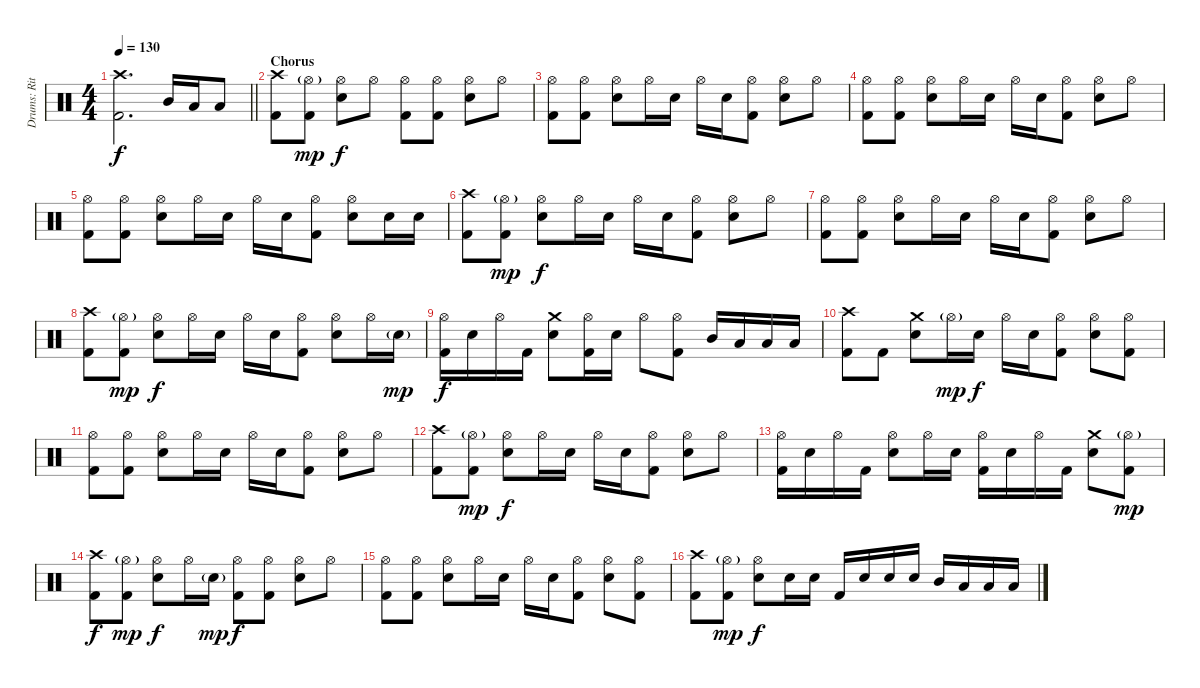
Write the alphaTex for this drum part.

\track ("Drums: Ritsu Tainaka" "Drums: Rit") {instrument percussion}
\staff {score}
\articulation defaults
\ts (4 4)
\tempo 130
\clef neutral
\barLineRight lightlight
\ks c
("Crash high (hit)" "Kick (hit) 2").2{d dy f} "Mid Tom (hit)".16 "Low Tom (hit)".16 "Low Floor Tom (hit)".8 |
\section ("" "Chorus")
("Crash high (hit)" "Kick (hit) 2").8 ("Hi-Hat (open)"{g} "Kick (hit) 2").8{dy mp} ("Hi-Hat (open)" "Electric Snare (hit)").8{dy f} "Hi-Hat (open)".8 ("Hi-Hat (open)" "Kick (hit) 2").8 ("Hi-Hat (open)" "Kick (hit) 2").8 ("Hi-Hat (open)" "Electric Snare (hit)").8 "Hi-Hat (open)".8 |
("Hi-Hat (open)" "Kick (hit) 2").8 ("Hi-Hat (open)" "Kick (hit) 2").8 ("Hi-Hat (open)" "Electric Snare (hit)").8 "Hi-Hat (open)".16 "Electric Snare (hit)".16 "Hi-Hat (open)".16 "Electric Snare (hit)".16 ("Hi-Hat (open)" "Kick (hit) 2").8 ("Hi-Hat (open)" "Electric Snare (hit)").8 "Hi-Hat (open)".8 |
("Hi-Hat (open)" "Kick (hit) 2").8 ("Hi-Hat (open)" "Kick (hit) 2").8 ("Hi-Hat (open)" "Electric Snare (hit)").8 "Hi-Hat (open)".16 "Electric Snare (hit)".16 "Hi-Hat (open)".16 "Electric Snare (hit)".16 ("Hi-Hat (open)" "Kick (hit) 2").8 ("Hi-Hat (open)" "Electric Snare (hit)").8 "Hi-Hat (open)".8 |
("Hi-Hat (open)" "Kick (hit) 2").8 ("Hi-Hat (open)" "Kick (hit) 2").8 ("Hi-Hat (open)" "Electric Snare (hit)").8 "Hi-Hat (open)".16 "Electric Snare (hit)".16 "Hi-Hat (open)".16 "Electric Snare (hit)".16 ("Hi-Hat (open)" "Kick (hit) 2").8 ("Hi-Hat (open)" "Electric Snare (hit)").8 "Electric Snare (hit)".16 "Electric Snare (hit)".16 |
("Crash high (hit)" "Kick (hit) 2").8 ("Hi-Hat (open)"{g} "Kick (hit) 2").8{dy mp} ("Hi-Hat (open)" "Electric Snare (hit)").8{dy f} "Hi-Hat (open)".16 "Electric Snare (hit)".16 "Hi-Hat (open)".16 "Electric Snare (hit)".16 ("Hi-Hat (open)" "Kick (hit) 2").8 ("Hi-Hat (open)" "Electric Snare (hit)").8 "Hi-Hat (open)".8 |
("Hi-Hat (open)" "Kick (hit) 2").8 ("Hi-Hat (open)" "Kick (hit) 2").8 ("Hi-Hat (open)" "Electric Snare (hit)").8 "Hi-Hat (open)".16 "Electric Snare (hit)".16 "Hi-Hat (open)".16 "Electric Snare (hit)".16 ("Hi-Hat (open)" "Kick (hit) 2").8 ("Hi-Hat (open)" "Electric Snare (hit)").8 "Hi-Hat (open)".8 |
("Crash high (hit)" "Kick (hit) 2").8 ("Hi-Hat (open)"{g} "Kick (hit) 2").8{dy mp} ("Hi-Hat (open)" "Electric Snare (hit)").8{dy f} "Hi-Hat (open)".16 "Electric Snare (hit)".16 "Hi-Hat (open)".16 "Electric Snare (hit)".16 ("Hi-Hat (open)" "Kick (hit) 2").8 ("Hi-Hat (open)" "Electric Snare (hit)").8 "Hi-Hat (open)".16 "Electric Snare (hit)"{g}.16{dy mp} |
("Hi-Hat (open)" "Kick (hit) 2").16{dy f} "Electric Snare (hit)".16 "Hi-Hat (open)".16 "Kick (hit) 2".16 ("Crash medium (hit)" "Electric Snare (hit)").8 ("Hi-Hat (open)" "Kick (hit) 2").16 "Electric Snare (hit)".16 "Hi-Hat (open)".8 ("Hi-Hat (open)" "Kick (hit) 2").8 "Mid Tom (hit)".16 "Low Tom (hit)".16 "Low Floor Tom (hit)".16 "Low Floor Tom (hit)".16 |
("Crash high (hit)" "Kick (hit) 2").8 "Kick (hit) 2".8 ("Crash medium (hit)" "Electric Snare (hit)").8 "Hi-Hat (open)"{g}.16{dy mp} "Electric Snare (hit)".16{dy f} "Hi-Hat (open)".16 "Electric Snare (hit)".16 ("Hi-Hat (open)" "Kick (hit) 2").8 ("Hi-Hat (open)" "Electric Snare (hit)").8 ("Hi-Hat (open)" "Kick (hit) 2").8 |
("Hi-Hat (open)" "Kick (hit) 2").8 ("Hi-Hat (open)" "Kick (hit) 2").8 ("Hi-Hat (open)" "Electric Snare (hit)").8 "Hi-Hat (open)".16 "Electric Snare (hit)".16 "Hi-Hat (open)".16 "Electric Snare (hit)".16 ("Hi-Hat (open)" "Kick (hit) 2").8 ("Hi-Hat (open)" "Electric Snare (hit)").8 "Hi-Hat (open)".8 |
("Crash high (hit)" "Kick (hit) 2").8 ("Hi-Hat (open)"{g} "Kick (hit) 2").8{dy mp} ("Hi-Hat (open)" "Electric Snare (hit)").8{dy f} "Hi-Hat (open)".16 "Electric Snare (hit)".16 "Hi-Hat (open)".16 "Electric Snare (hit)".16 ("Hi-Hat (open)" "Kick (hit) 2").8 ("Hi-Hat (open)" "Electric Snare (hit)").8 "Hi-Hat (open)".8 |
("Hi-Hat (open)" "Kick (hit) 2").16 "Electric Snare (hit)".16 "Hi-Hat (open)".16 "Kick (hit) 2".16 ("Hi-Hat (open)" "Electric Snare (hit)").8 "Hi-Hat (open)".16 "Electric Snare (hit)".16 ("Hi-Hat (open)" "Kick (hit) 2").16 "Electric Snare (hit)".16 "Hi-Hat (open)".16 "Kick (hit) 2".16 ("Crash medium (hit)" "Electric Snare (hit)").8 ("Hi-Hat (open)"{g} "Kick (hit) 2").8{dy mp} |
("Crash high (hit)" "Kick (hit) 2").8{dy f} ("Hi-Hat (open)"{g} "Kick (hit) 2").8{dy mp} ("Hi-Hat (open)" "Electric Snare (hit)").8{dy f} "Hi-Hat (open)".16 "Electric Snare (hit)"{g}.16{dy mp} ("Hi-Hat (open)" "Kick (hit) 2").8{dy f} ("Hi-Hat (open)" "Kick (hit) 2").8 ("Hi-Hat (open)" "Electric Snare (hit)").8 "Hi-Hat (open)".8 |
("Hi-Hat (open)" "Kick (hit) 2").8 ("Hi-Hat (open)" "Kick (hit) 2").8 ("Hi-Hat (open)" "Electric Snare (hit)").8 "Hi-Hat (open)".16 "Electric Snare (hit)".16 "Hi-Hat (open)".16 "Electric Snare (hit)".16 ("Hi-Hat (open)" "Kick (hit) 2").8 ("Hi-Hat (open)" "Electric Snare (hit)").8 ("Hi-Hat (open)" "Kick (hit) 2").8 |
("Crash high (hit)" "Kick (hit) 2").8 ("Hi-Hat (open)"{g} "Kick (hit) 2").8{dy mp} ("Hi-Hat (open)" "Electric Snare (hit)").8{dy f} "Electric Snare (hit)".16 "Electric Snare (hit)".16 "Kick (hit) 2".16 "Electric Snare (hit)".16 "Electric Snare (hit)".16 "Electric Snare (hit)".16 "Mid Tom (hit)".16 "Low Tom (hit)".16 "Low Floor Tom (hit)".16 "Low Floor Tom (hit)".16
